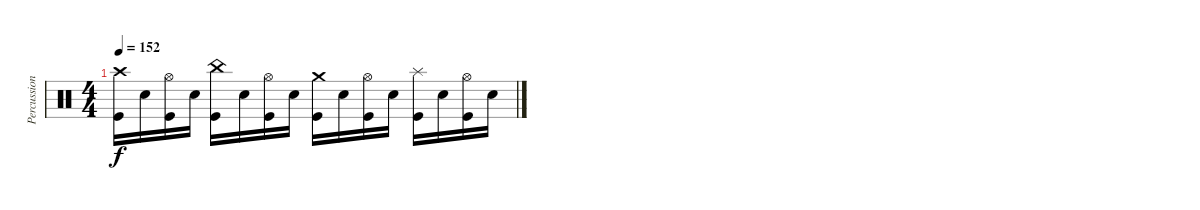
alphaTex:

\track ("Percussion" "Percussion") {instrument percussion}
\staff {score}
\articulation defaults
\ts (4 4)
\tempo 152
\clef neutral
\ks c
("Crash high (hit)" "Kick (hit)").16{dy f} "Snare (hit) 2".16 ("Hi-Hat (open)" "Kick (hit)").16 "Snare (hit) 2".16 ("China (hit)" "Kick (hit)").16 "Snare (hit) 2".16 ("Hi-Hat (open)" "Kick (hit)").16 "Snare (hit) 2".16 ("Crash medium (hit)" "Kick (hit)").16 "Snare (hit) 2".16 ("Hi-Hat (open)" "Kick (hit)").16 "Snare (hit) 2".16 ("Splash (hit)" "Kick (hit)").16 "Snare (hit) 2".16 ("Hi-Hat (open)" "Kick (hit)").16 "Snare (hit) 2".16
